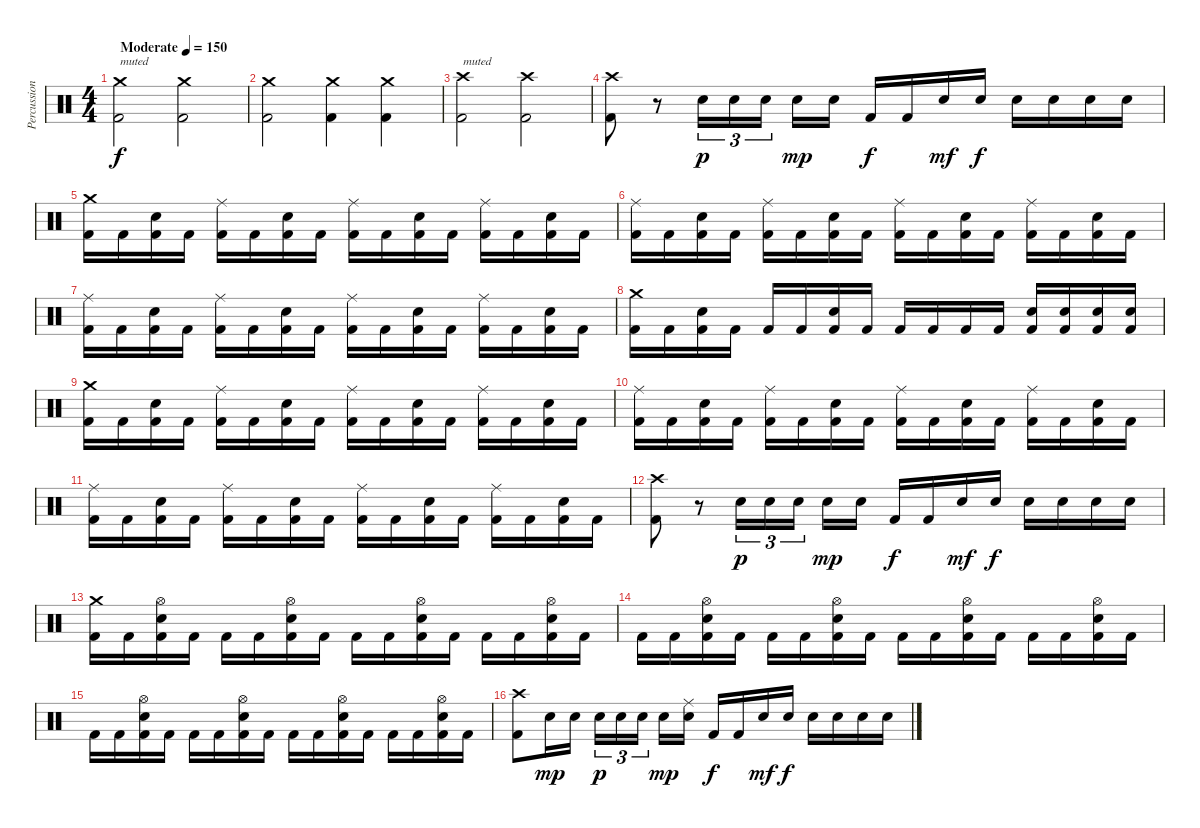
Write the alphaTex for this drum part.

\track ("Percussion" "Percussion") {instrument percussion bank 6}
\staff {score}
\articulation defaults
\ts (4 4)
\tempo (150 "Moderate")
\clef neutral
\ks c
("Crash medium (hit)" "Kick (hit) 2").2{txt "muted" dy f} ("Crash medium (hit)" "Kick (hit) 2").2 |
("Crash medium (hit)" "Kick (hit) 2").2 ("Crash medium (hit)" "Kick (hit) 2").4 ("Crash medium (hit)" "Kick (hit) 2").4 |
("Crash high (hit)" "Kick (hit) 2").2{txt "muted"} ("Crash high (hit)" "Kick (hit) 2").2 |
("Crash high (hit)" "Kick (hit) 2").8 r.8 "Electric Snare (hit)".16{tu (3 2) dy p} "Electric Snare (hit)".16{tu (3 2)} "Electric Snare (hit)".16{tu (3 2) beam splitsecondary} "Electric Snare (hit)".16{dy mp} "Electric Snare (hit)".16 "Kick (hit) 2".16{dy f} "Kick (hit) 2".16 "Electric Snare (hit)".16{dy mf} "Electric Snare (hit)".16{dy f} "Electric Snare (hit)".16 "Electric Snare (hit)".16 "Electric Snare (hit)".16 "Electric Snare (hit)".16 |
("Crash medium (hit)" "Kick (hit) 2").16 "Kick (hit) 2".16 ("Electric Snare (hit)" "Kick (hit) 2").16 "Kick (hit) 2".16 ("Ride (middle)" "Kick (hit) 2").16 "Kick (hit) 2".16 ("Electric Snare (hit)" "Kick (hit) 2").16 "Kick (hit) 2".16 ("Ride (middle)" "Kick (hit) 2").16 "Kick (hit) 2".16 ("Electric Snare (hit)" "Kick (hit) 2").16 "Kick (hit) 2".16 ("Ride (middle)" "Kick (hit) 2").16 "Kick (hit) 2".16 ("Electric Snare (hit)" "Kick (hit) 2").16 "Kick (hit) 2".16 |
("Ride (middle)" "Kick (hit) 2").16 "Kick (hit) 2".16 ("Electric Snare (hit)" "Kick (hit) 2").16 "Kick (hit) 2".16 ("Ride (middle)" "Kick (hit) 2").16 "Kick (hit) 2".16 ("Electric Snare (hit)" "Kick (hit) 2").16 "Kick (hit) 2".16 ("Ride (middle)" "Kick (hit) 2").16 "Kick (hit) 2".16 ("Electric Snare (hit)" "Kick (hit) 2").16 "Kick (hit) 2".16 ("Ride (middle)" "Kick (hit) 2").16 "Kick (hit) 2".16 ("Electric Snare (hit)" "Kick (hit) 2").16 "Kick (hit) 2".16 |
("Ride (middle)" "Kick (hit) 2").16 "Kick (hit) 2".16 ("Electric Snare (hit)" "Kick (hit) 2").16 "Kick (hit) 2".16 ("Ride (middle)" "Kick (hit) 2").16 "Kick (hit) 2".16 ("Electric Snare (hit)" "Kick (hit) 2").16 "Kick (hit) 2".16 ("Ride (middle)" "Kick (hit) 2").16 "Kick (hit) 2".16 ("Electric Snare (hit)" "Kick (hit) 2").16 "Kick (hit) 2".16 ("Ride (middle)" "Kick (hit) 2").16 "Kick (hit) 2".16 ("Electric Snare (hit)" "Kick (hit) 2").16 "Kick (hit) 2".16 |
("Crash medium (hit)" "Kick (hit) 2").16 "Kick (hit) 2".16 ("Electric Snare (hit)" "Kick (hit) 2").16 "Kick (hit) 2".16 "Kick (hit) 2".16 "Kick (hit) 2".16 ("Electric Snare (hit)" "Kick (hit) 2").16 "Kick (hit) 2".16 "Kick (hit) 2".16 "Kick (hit) 2".16 "Kick (hit) 2".16 "Kick (hit) 2".16 ("Electric Snare (hit)" "Kick (hit) 2").16 ("Electric Snare (hit)" "Kick (hit) 2").16 ("Electric Snare (hit)" "Kick (hit) 2").16 ("Electric Snare (hit)" "Kick (hit) 2").16 |
("Crash medium (hit)" "Kick (hit) 2").16 "Kick (hit) 2".16 ("Electric Snare (hit)" "Kick (hit) 2").16 "Kick (hit) 2".16 ("Ride (middle)" "Kick (hit) 2").16 "Kick (hit) 2".16 ("Electric Snare (hit)" "Kick (hit) 2").16 "Kick (hit) 2".16 ("Ride (middle)" "Kick (hit) 2").16 "Kick (hit) 2".16 ("Electric Snare (hit)" "Kick (hit) 2").16 "Kick (hit) 2".16 ("Ride (middle)" "Kick (hit) 2").16 "Kick (hit) 2".16 ("Electric Snare (hit)" "Kick (hit) 2").16 "Kick (hit) 2".16 |
("Ride (middle)" "Kick (hit) 2").16 "Kick (hit) 2".16 ("Electric Snare (hit)" "Kick (hit) 2").16 "Kick (hit) 2".16 ("Ride (middle)" "Kick (hit) 2").16 "Kick (hit) 2".16 ("Electric Snare (hit)" "Kick (hit) 2").16 "Kick (hit) 2".16 ("Ride (middle)" "Kick (hit) 2").16 "Kick (hit) 2".16 ("Electric Snare (hit)" "Kick (hit) 2").16 "Kick (hit) 2".16 ("Ride (middle)" "Kick (hit) 2").16 "Kick (hit) 2".16 ("Electric Snare (hit)" "Kick (hit) 2").16 "Kick (hit) 2".16 |
("Ride (middle)" "Kick (hit) 2").16 "Kick (hit) 2".16 ("Electric Snare (hit)" "Kick (hit) 2").16 "Kick (hit) 2".16 ("Ride (middle)" "Kick (hit) 2").16 "Kick (hit) 2".16 ("Electric Snare (hit)" "Kick (hit) 2").16 "Kick (hit) 2".16 ("Ride (middle)" "Kick (hit) 2").16 "Kick (hit) 2".16 ("Electric Snare (hit)" "Kick (hit) 2").16 "Kick (hit) 2".16 ("Ride (middle)" "Kick (hit) 2").16 "Kick (hit) 2".16 ("Electric Snare (hit)" "Kick (hit) 2").16 "Kick (hit) 2".16 |
("Crash high (hit)" "Kick (hit) 2").8 r.8 "Electric Snare (hit)".16{tu (3 2) dy p} "Electric Snare (hit)".16{tu (3 2)} "Electric Snare (hit)".16{tu (3 2) beam splitsecondary} "Electric Snare (hit)".16{dy mp} "Electric Snare (hit)".16 "Kick (hit) 2".16{dy f} "Kick (hit) 2".16 "Electric Snare (hit)".16{dy mf} "Electric Snare (hit)".16{dy f} "Electric Snare (hit)".16 "Electric Snare (hit)".16 "Electric Snare (hit)".16 "Electric Snare (hit)".16 |
("Crash medium (hit)" "Kick (hit) 2").16 "Kick (hit) 2".16 ("Hi-Hat (open)" "Electric Snare (hit)" "Kick (hit) 2").16 "Kick (hit) 2".16 "Kick (hit) 2".16 "Kick (hit) 2".16 ("Hi-Hat (open)" "Electric Snare (hit)" "Kick (hit) 2").16 "Kick (hit) 2".16 "Kick (hit) 2".16 "Kick (hit) 2".16 ("Hi-Hat (open)" "Electric Snare (hit)" "Kick (hit) 2").16 "Kick (hit) 2".16 "Kick (hit) 2".16 "Kick (hit) 2".16 ("Hi-Hat (open)" "Electric Snare (hit)" "Kick (hit) 2").16 "Kick (hit) 2".16 |
"Kick (hit) 2".16 "Kick (hit) 2".16 ("Hi-Hat (open)" "Electric Snare (hit)" "Kick (hit) 2").16 "Kick (hit) 2".16 "Kick (hit) 2".16 "Kick (hit) 2".16 ("Hi-Hat (open)" "Electric Snare (hit)" "Kick (hit) 2").16 "Kick (hit) 2".16 "Kick (hit) 2".16 "Kick (hit) 2".16 ("Hi-Hat (open)" "Electric Snare (hit)" "Kick (hit) 2").16 "Kick (hit) 2".16 "Kick (hit) 2".16 "Kick (hit) 2".16 ("Hi-Hat (open)" "Electric Snare (hit)" "Kick (hit) 2").16 "Kick (hit) 2".16 |
"Kick (hit) 2".16 "Kick (hit) 2".16 ("Hi-Hat (open)" "Electric Snare (hit)" "Kick (hit) 2").16 "Kick (hit) 2".16 "Kick (hit) 2".16 "Kick (hit) 2".16 ("Hi-Hat (open)" "Electric Snare (hit)" "Kick (hit) 2").16 "Kick (hit) 2".16 "Kick (hit) 2".16 "Kick (hit) 2".16 ("Hi-Hat (open)" "Electric Snare (hit)" "Kick (hit) 2").16 "Kick (hit) 2".16 "Kick (hit) 2".16 "Kick (hit) 2".16 ("Hi-Hat (open)" "Electric Snare (hit)" "Kick (hit) 2").16 "Kick (hit) 2".16 |
("Crash high (hit)" "Kick (hit) 2").8 "Electric Snare (hit)".16{dy mp} "Electric Snare (hit)".16 "Electric Snare (hit)".16{tu (3 2) dy p} "Electric Snare (hit)".16{tu (3 2)} "Electric Snare (hit)".16{tu (3 2) beam splitsecondary} "Electric Snare (hit)".16{dy mp} ("Ride (middle)" "Electric Snare (hit)").16 "Kick (hit) 2".16{dy f} "Kick (hit) 2".16 "Electric Snare (hit)".16{dy mf} "Electric Snare (hit)".16{dy f} "Electric Snare (hit)".16 "Electric Snare (hit)".16 "Electric Snare (hit)".16 "Electric Snare (hit)".16
